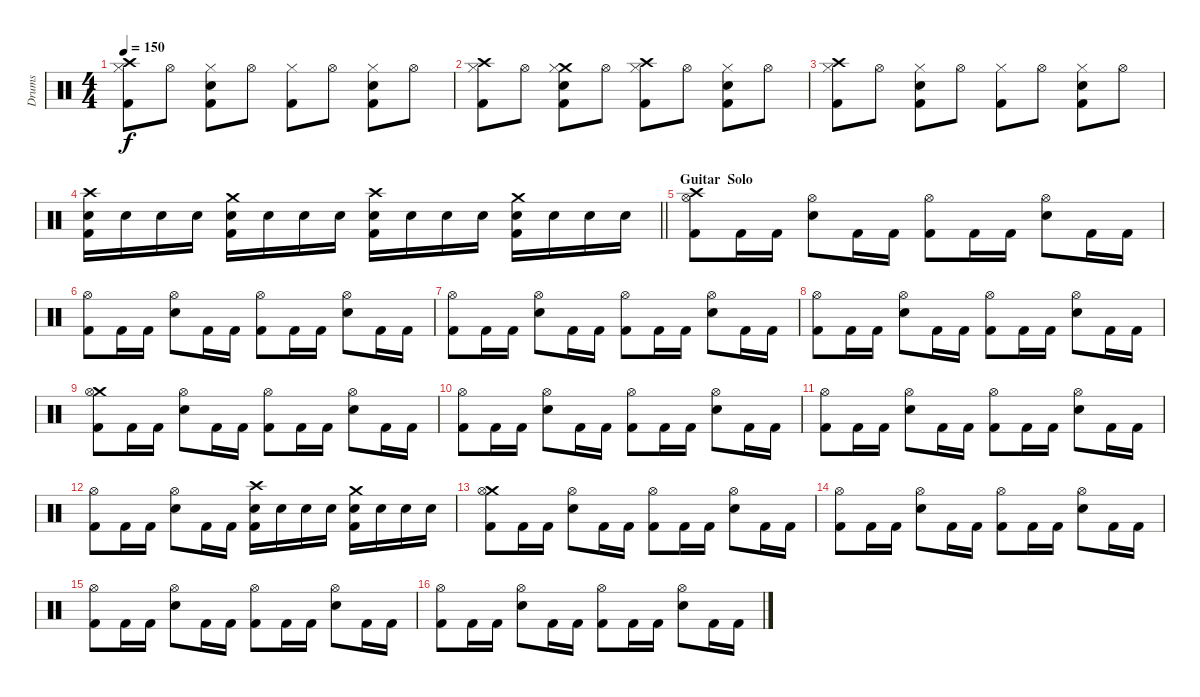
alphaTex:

\track ("Drums" "Drums") {instrument percussion}
\staff {score}
\articulation defaults
\ts (4 4)
\tempo 150
\clef neutral
\ks c
("Crash high (hit)" "Hi-Hat (closed)" "Kick (hit) 2").8{dy f} "Hi-Hat (open)".8 ("Hi-Hat (closed)" "Snare (hit) 2" "Kick (hit) 2").8 "Hi-Hat (open)".8 ("Hi-Hat (closed)" "Kick (hit) 2").8 "Hi-Hat (open)".8 ("Hi-Hat (closed)" "Snare (hit) 2" "Kick (hit) 2").8 "Hi-Hat (open)".8 |
("Crash high (hit)" "Hi-Hat (closed)" "Kick (hit) 2").8 "Hi-Hat (open)".8 ("Crash medium (hit)" "Hi-Hat (closed)" "Snare (hit) 2" "Kick (hit) 2").8 "Hi-Hat (open)".8 ("Crash high (hit)" "Hi-Hat (closed)" "Kick (hit) 2").8 "Hi-Hat (open)".8 ("Hi-Hat (closed)" "Snare (hit) 2" "Kick (hit) 2").8 "Hi-Hat (open)".8 |
("Crash high (hit)" "Hi-Hat (closed)" "Kick (hit) 2").8 "Hi-Hat (open)".8 ("Hi-Hat (closed)" "Snare (hit) 2" "Kick (hit) 2").8 "Hi-Hat (open)".8 ("Hi-Hat (closed)" "Kick (hit) 2").8 "Hi-Hat (open)".8 ("Hi-Hat (closed)" "Snare (hit) 2" "Kick (hit) 2").8 "Hi-Hat (open)".8 |
\barLineRight lightlight
("Crash high (hit)" "Snare (hit) 2" "Kick (hit) 2").16 "Snare (hit) 2".16 "Snare (hit) 2".16 "Snare (hit) 2".16 ("Crash medium (hit)" "Snare (hit) 2" "Kick (hit) 2").16 "Snare (hit) 2".16 "Snare (hit) 2".16 "Snare (hit) 2".16 ("Crash high (hit)" "Snare (hit) 2" "Kick (hit) 2").16 "Snare (hit) 2".16 "Snare (hit) 2".16 "Snare (hit) 2".16 ("Crash medium (hit)" "Snare (hit) 2" "Kick (hit) 2").16 "Snare (hit) 2".16 "Snare (hit) 2".16 "Snare (hit) 2".16 |
\section ("" "Guitar  Solo")
("Crash high (hit)" "Hi-Hat (open)" "Kick (hit) 2").8 "Kick (hit) 2".16 "Kick (hit) 2".16 ("Hi-Hat (open)" "Snare (hit) 2").8 "Kick (hit) 2".16 "Kick (hit) 2".16 ("Hi-Hat (open)" "Kick (hit) 2").8 "Kick (hit) 2".16 "Kick (hit) 2".16 ("Hi-Hat (open)" "Snare (hit) 2").8 "Kick (hit) 2".16 "Kick (hit) 2".16 |
("Hi-Hat (open)" "Kick (hit) 2").8 "Kick (hit) 2".16 "Kick (hit) 2".16 ("Hi-Hat (open)" "Snare (hit) 2").8 "Kick (hit) 2".16 "Kick (hit) 2".16 ("Hi-Hat (open)" "Kick (hit) 2").8 "Kick (hit) 2".16 "Kick (hit) 2".16 ("Hi-Hat (open)" "Snare (hit) 2").8 "Kick (hit) 2".16 "Kick (hit) 2".16 |
("Hi-Hat (open)" "Kick (hit) 2").8 "Kick (hit) 2".16 "Kick (hit) 2".16 ("Hi-Hat (open)" "Snare (hit) 2").8 "Kick (hit) 2".16 "Kick (hit) 2".16 ("Hi-Hat (open)" "Kick (hit) 2").8 "Kick (hit) 2".16 "Kick (hit) 2".16 ("Hi-Hat (open)" "Snare (hit) 2").8 "Kick (hit) 2".16 "Kick (hit) 2".16 |
("Hi-Hat (open)" "Kick (hit) 2").8 "Kick (hit) 2".16 "Kick (hit) 2".16 ("Hi-Hat (open)" "Snare (hit) 2").8 "Kick (hit) 2".16 "Kick (hit) 2".16 ("Hi-Hat (open)" "Kick (hit) 2").8 "Kick (hit) 2".16 "Kick (hit) 2".16 ("Hi-Hat (open)" "Snare (hit) 2").8 "Kick (hit) 2".16 "Kick (hit) 2".16 |
("Crash medium (hit)" "Hi-Hat (open)" "Kick (hit) 2").8 "Kick (hit) 2".16 "Kick (hit) 2".16 ("Hi-Hat (open)" "Snare (hit) 2").8 "Kick (hit) 2".16 "Kick (hit) 2".16 ("Hi-Hat (open)" "Kick (hit) 2").8 "Kick (hit) 2".16 "Kick (hit) 2".16 ("Hi-Hat (open)" "Snare (hit) 2").8 "Kick (hit) 2".16 "Kick (hit) 2".16 |
("Hi-Hat (open)" "Kick (hit) 2").8 "Kick (hit) 2".16 "Kick (hit) 2".16 ("Hi-Hat (open)" "Snare (hit) 2").8 "Kick (hit) 2".16 "Kick (hit) 2".16 ("Hi-Hat (open)" "Kick (hit) 2").8 "Kick (hit) 2".16 "Kick (hit) 2".16 ("Hi-Hat (open)" "Snare (hit) 2").8 "Kick (hit) 2".16 "Kick (hit) 2".16 |
("Hi-Hat (open)" "Kick (hit) 2").8 "Kick (hit) 2".16 "Kick (hit) 2".16 ("Hi-Hat (open)" "Snare (hit) 2").8 "Kick (hit) 2".16 "Kick (hit) 2".16 ("Hi-Hat (open)" "Kick (hit) 2").8 "Kick (hit) 2".16 "Kick (hit) 2".16 ("Hi-Hat (open)" "Snare (hit) 2").8 "Kick (hit) 2".16 "Kick (hit) 2".16 |
("Hi-Hat (open)" "Kick (hit) 2").8 "Kick (hit) 2".16 "Kick (hit) 2".16 ("Hi-Hat (open)" "Snare (hit) 2").8 "Kick (hit) 2".16 "Kick (hit) 2".16 ("Crash high (hit)" "Snare (hit) 2" "Kick (hit) 2").16 "Snare (hit) 2".16 "Snare (hit) 2".16 "Snare (hit) 2".16 ("Crash medium (hit)" "Snare (hit) 2" "Kick (hit) 2").16 "Snare (hit) 2".16 "Snare (hit) 2".16 "Snare (hit) 2".16 |
("Crash medium (hit)" "Hi-Hat (open)" "Kick (hit) 2").8 "Kick (hit) 2".16 "Kick (hit) 2".16 ("Hi-Hat (open)" "Snare (hit) 2").8 "Kick (hit) 2".16 "Kick (hit) 2".16 ("Hi-Hat (open)" "Kick (hit) 2").8 "Kick (hit) 2".16 "Kick (hit) 2".16 ("Hi-Hat (open)" "Snare (hit) 2").8 "Kick (hit) 2".16 "Kick (hit) 2".16 |
("Hi-Hat (open)" "Kick (hit) 2").8 "Kick (hit) 2".16 "Kick (hit) 2".16 ("Hi-Hat (open)" "Snare (hit) 2").8 "Kick (hit) 2".16 "Kick (hit) 2".16 ("Hi-Hat (open)" "Kick (hit) 2").8 "Kick (hit) 2".16 "Kick (hit) 2".16 ("Hi-Hat (open)" "Snare (hit) 2").8 "Kick (hit) 2".16 "Kick (hit) 2".16 |
("Hi-Hat (open)" "Kick (hit) 2").8 "Kick (hit) 2".16 "Kick (hit) 2".16 ("Hi-Hat (open)" "Snare (hit) 2").8 "Kick (hit) 2".16 "Kick (hit) 2".16 ("Hi-Hat (open)" "Kick (hit) 2").8 "Kick (hit) 2".16 "Kick (hit) 2".16 ("Hi-Hat (open)" "Snare (hit) 2").8 "Kick (hit) 2".16 "Kick (hit) 2".16 |
("Hi-Hat (open)" "Kick (hit) 2").8 "Kick (hit) 2".16 "Kick (hit) 2".16 ("Hi-Hat (open)" "Snare (hit) 2").8 "Kick (hit) 2".16 "Kick (hit) 2".16 ("Hi-Hat (open)" "Kick (hit) 2").8 "Kick (hit) 2".16 "Kick (hit) 2".16 ("Hi-Hat (open)" "Snare (hit) 2").8 "Kick (hit) 2".16 "Kick (hit) 2".16
